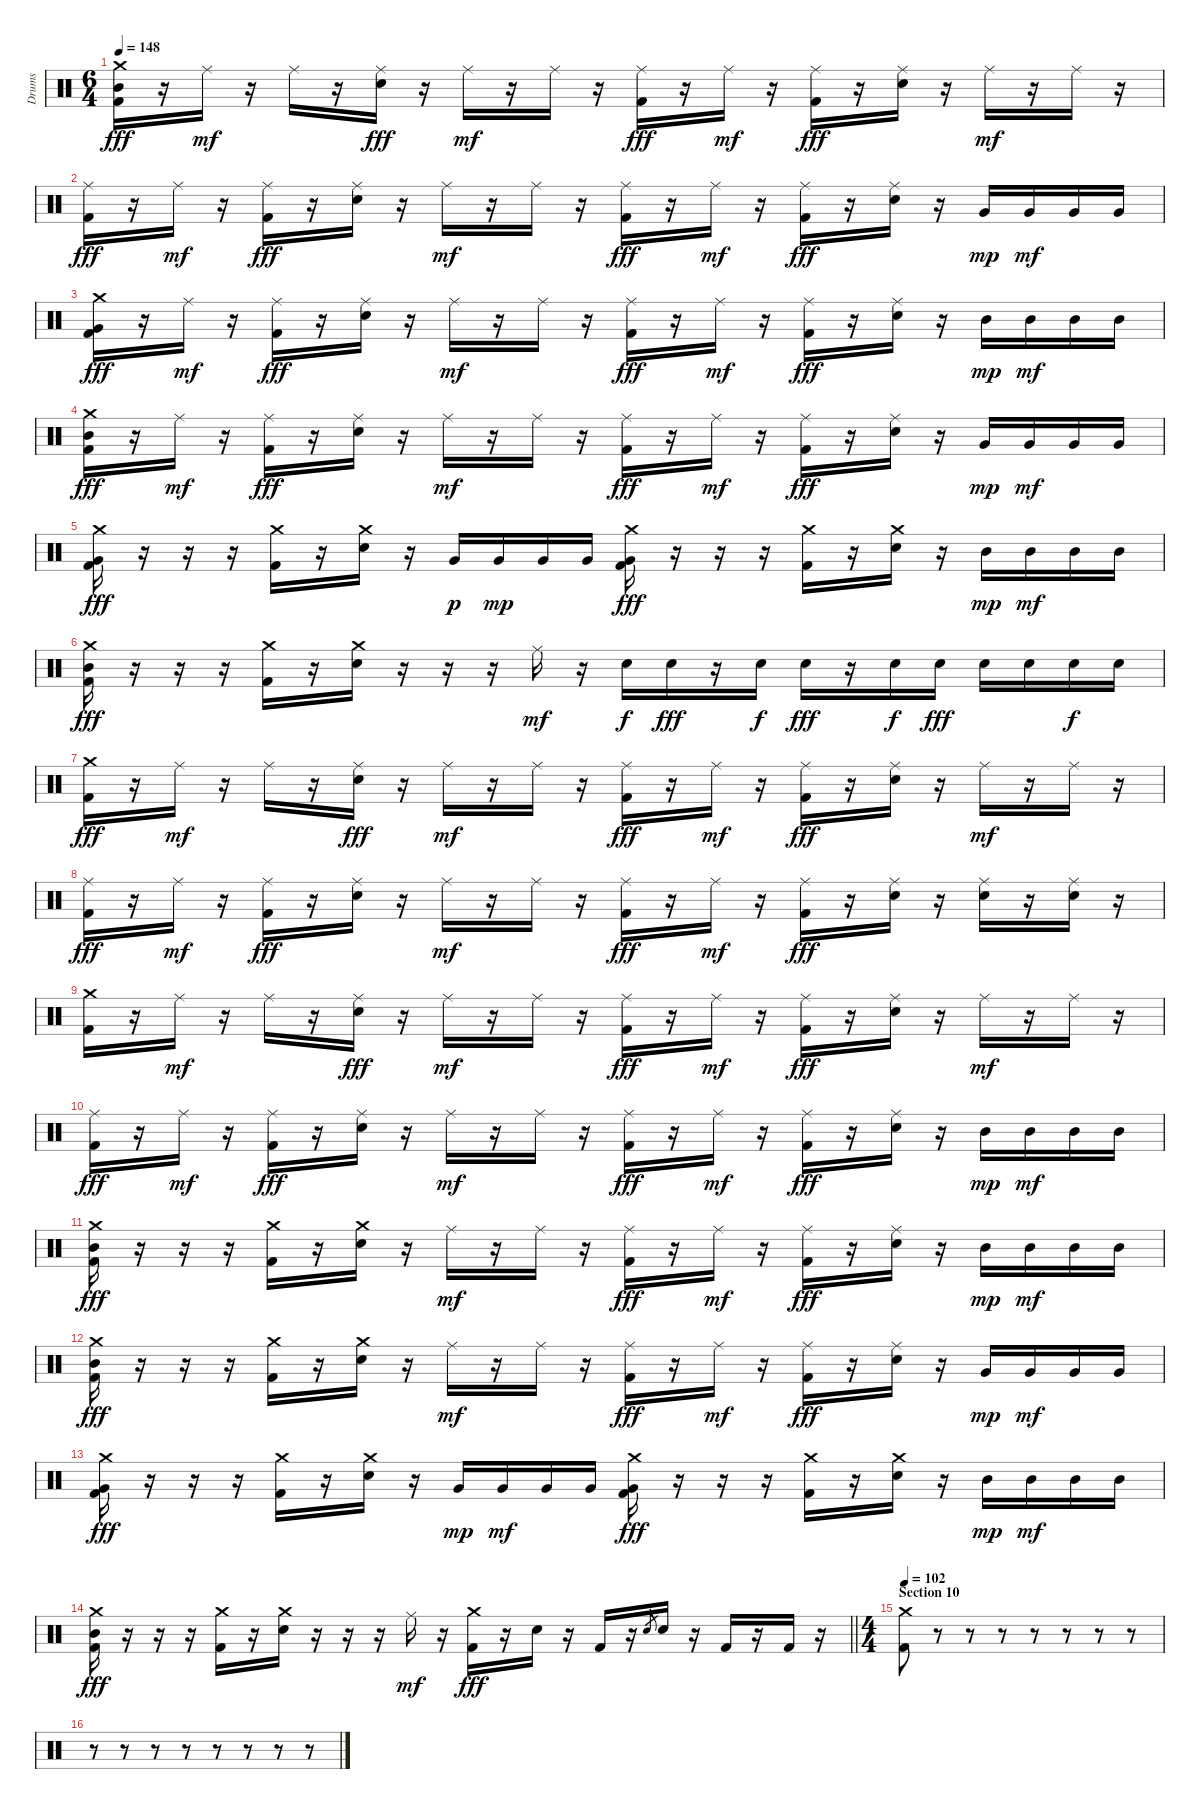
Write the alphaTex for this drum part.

\track ("Drums" "Drums") {instrument percussion}
\staff {score}
\articulation defaults
\ts (6 4)
\tempo 148
\clef neutral
\ks c
("Crash medium (hit)" "Mid Tom (hit)" "Kick (hit) 2").16{dy fff} r.16 "Ride (middle)".16{dy mf} r.16 "Ride (middle)".16 r.16 ("Ride (middle)" "Electric Snare (hit)").16{dy fff} r.16 "Ride (middle)".16{dy mf} r.16 "Ride (middle)".16 r.16 ("Ride (middle)" "Kick (hit) 2").16{dy fff} r.16 "Ride (middle)".16{dy mf} r.16 ("Ride (middle)" "Kick (hit) 2").16{dy fff} r.16 ("Ride (middle)" "Electric Snare (hit)").16 r.16 "Ride (middle)".16{dy mf} r.16 "Ride (middle)".16 r.16 |
("Ride (middle)" "Kick (hit) 2").16{dy fff} r.16 "Ride (middle)".16{dy mf} r.16 ("Ride (middle)" "Kick (hit) 2").16{dy fff} r.16 ("Ride (middle)" "Electric Snare (hit)").16 r.16 "Ride (middle)".16{dy mf} r.16 "Ride (middle)".16 r.16 ("Ride (middle)" "Kick (hit) 2").16{dy fff} r.16 "Ride (middle)".16{dy mf} r.16 ("Ride (middle)" "Kick (hit) 2").16{dy fff} r.16 ("Ride (middle)" "Electric Snare (hit)").16 r.16 "Very Low Tom (hit)".16{dy mp} "Very Low Tom (hit)".16{dy mf} "Very Low Tom (hit)".16 "Very Low Tom (hit)".16 |
("Crash medium (hit)" "Very Low Tom (hit)" "Kick (hit) 2").16{dy fff} r.16 "Ride (middle)".16{dy mf} r.16 ("Ride (middle)" "Kick (hit) 2").16{dy fff} r.16 ("Ride (middle)" "Electric Snare (hit)").16 r.16 "Ride (middle)".16{dy mf} r.16 "Ride (middle)".16 r.16 ("Ride (middle)" "Kick (hit) 2").16{dy fff} r.16 "Ride (middle)".16{dy mf} r.16 ("Ride (middle)" "Kick (hit) 2").16{dy fff} r.16 ("Ride (middle)" "Electric Snare (hit)").16 r.16 "Mid Tom (hit)".16{dy mp} "Mid Tom (hit)".16{dy mf} "Mid Tom (hit)".16 "Mid Tom (hit)".16 |
("Crash medium (hit)" "Mid Tom (hit)" "Kick (hit) 2").16{dy fff} r.16 "Ride (middle)".16{dy mf} r.16 ("Ride (middle)" "Kick (hit) 2").16{dy fff} r.16 ("Ride (middle)" "Electric Snare (hit)").16 r.16 "Ride (middle)".16{dy mf} r.16 "Ride (middle)".16 r.16 ("Ride (middle)" "Kick (hit) 2").16{dy fff} r.16 "Ride (middle)".16{dy mf} r.16 ("Ride (middle)" "Kick (hit) 2").16{dy fff} r.16 ("Ride (middle)" "Electric Snare (hit)").16 r.16 "Very Low Tom (hit)".16{dy mp} "Very Low Tom (hit)".16{dy mf} "Very Low Tom (hit)".16 "Very Low Tom (hit)".16 |
("Crash medium (hit)" "Very Low Tom (hit)" "Kick (hit) 2").16{dy fff} r.16 r.16 r.16 ("Crash medium (hit)" "Kick (hit) 2").16 r.16 ("Crash medium (hit)" "Electric Snare (hit)").16 r.16 "Very Low Tom (hit)".16{dy p} "Very Low Tom (hit)".16{dy mp} "Very Low Tom (hit)".16 "Very Low Tom (hit)".16 ("Crash medium (hit)" "Very Low Tom (hit)" "Kick (hit) 2").16{dy fff} r.16 r.16 r.16 ("Crash medium (hit)" "Kick (hit) 2").16 r.16 ("Crash medium (hit)" "Electric Snare (hit)").16 r.16 "Mid Tom (hit)".16{dy mp} "Mid Tom (hit)".16{dy mf} "Mid Tom (hit)".16 "Mid Tom (hit)".16 |
("Crash medium (hit)" "Mid Tom (hit)" "Kick (hit) 2").16{dy fff} r.16 r.16 r.16 ("Crash medium (hit)" "Kick (hit) 2").16 r.16 ("Crash medium (hit)" "Electric Snare (hit)").16 r.16 r.16 r.16 "Ride (middle)".16{dy mf} r.16 "Electric Snare (hit)".16{dy f} "Electric Snare (hit)".16{dy fff} r.16 "Electric Snare (hit)".16{dy f} "Electric Snare (hit)".16{dy fff} r.16 "Electric Snare (hit)".16{dy f} "Electric Snare (hit)".16{dy fff} "Electric Snare (hit)".16 "Electric Snare (hit)".16 "Electric Snare (hit)".16{dy f} "Electric Snare (hit)".16 |
("Crash medium (hit)" "Kick (hit) 2").16{dy fff} r.16 "Ride (middle)".16{dy mf} r.16 "Ride (middle)".16 r.16 ("Ride (middle)" "Electric Snare (hit)").16{dy fff} r.16 "Ride (middle)".16{dy mf} r.16 "Ride (middle)".16 r.16 ("Ride (middle)" "Kick (hit) 2").16{dy fff} r.16 "Ride (middle)".16{dy mf} r.16 ("Ride (middle)" "Kick (hit) 2").16{dy fff} r.16 ("Ride (middle)" "Electric Snare (hit)").16 r.16 "Ride (middle)".16{dy mf} r.16 "Ride (middle)".16 r.16 |
("Ride (middle)" "Kick (hit) 2").16{dy fff} r.16 "Ride (middle)".16{dy mf} r.16 ("Ride (middle)" "Kick (hit) 2").16{dy fff} r.16 ("Ride (middle)" "Electric Snare (hit)").16 r.16 "Ride (middle)".16{dy mf} r.16 "Ride (middle)".16 r.16 ("Ride (middle)" "Kick (hit) 2").16{dy fff} r.16 "Ride (middle)".16{dy mf} r.16 ("Ride (middle)" "Kick (hit) 2").16{dy fff} r.16 ("Ride (middle)" "Electric Snare (hit)").16 r.16 ("Ride (middle)" "Electric Snare (hit)").16 r.16 ("Ride (middle)" "Electric Snare (hit)").16 r.16 |
("Crash medium (hit)" "Kick (hit) 2").16 r.16 "Ride (middle)".16{dy mf} r.16 "Ride (middle)".16 r.16 ("Ride (middle)" "Electric Snare (hit)").16{dy fff} r.16 "Ride (middle)".16{dy mf} r.16 "Ride (middle)".16 r.16 ("Ride (middle)" "Kick (hit) 2").16{dy fff} r.16 "Ride (middle)".16{dy mf} r.16 ("Ride (middle)" "Kick (hit) 2").16{dy fff} r.16 ("Ride (middle)" "Electric Snare (hit)").16 r.16 "Ride (middle)".16{dy mf} r.16 "Ride (middle)".16 r.16 |
("Ride (middle)" "Kick (hit) 2").16{dy fff} r.16 "Ride (middle)".16{dy mf} r.16 ("Ride (middle)" "Kick (hit) 2").16{dy fff} r.16 ("Ride (middle)" "Electric Snare (hit)").16 r.16 "Ride (middle)".16{dy mf} r.16 "Ride (middle)".16 r.16 ("Ride (middle)" "Kick (hit) 2").16{dy fff} r.16 "Ride (middle)".16{dy mf} r.16 ("Ride (middle)" "Kick (hit) 2").16{dy fff} r.16 ("Ride (middle)" "Electric Snare (hit)").16 r.16 "Mid Tom (hit)".16{dy mp} "Mid Tom (hit)".16{dy mf} "Mid Tom (hit)".16 "Mid Tom (hit)".16 |
("Crash medium (hit)" "Mid Tom (hit)" "Kick (hit) 2").16{dy fff} r.16 r.16 r.16 ("Crash medium (hit)" "Kick (hit) 2").16 r.16 ("Crash medium (hit)" "Electric Snare (hit)").16 r.16 "Ride (middle)".16{dy mf} r.16 "Ride (middle)".16 r.16 ("Ride (middle)" "Kick (hit) 2").16{dy fff} r.16 "Ride (middle)".16{dy mf} r.16 ("Ride (middle)" "Kick (hit) 2").16{dy fff} r.16 ("Ride (middle)" "Electric Snare (hit)").16 r.16 "Mid Tom (hit)".16{dy mp} "Mid Tom (hit)".16{dy mf} "Mid Tom (hit)".16 "Mid Tom (hit)".16 |
("Crash medium (hit)" "Mid Tom (hit)" "Kick (hit) 2").16{dy fff} r.16 r.16 r.16 ("Crash medium (hit)" "Kick (hit) 2").16 r.16 ("Crash medium (hit)" "Electric Snare (hit)").16 r.16 "Ride (middle)".16{dy mf} r.16 "Ride (middle)".16 r.16 ("Ride (middle)" "Kick (hit) 2").16{dy fff} r.16 "Ride (middle)".16{dy mf} r.16 ("Ride (middle)" "Kick (hit) 2").16{dy fff} r.16 ("Ride (middle)" "Electric Snare (hit)").16 r.16 "Very Low Tom (hit)".16{dy mp} "Very Low Tom (hit)".16{dy mf} "Very Low Tom (hit)".16 "Very Low Tom (hit)".16 |
("Crash medium (hit)" "Very Low Tom (hit)" "Kick (hit) 2").16{dy fff} r.16 r.16 r.16 ("Crash medium (hit)" "Kick (hit) 2").16 r.16 ("Crash medium (hit)" "Electric Snare (hit)").16 r.16 "Very Low Tom (hit)".16{dy mp} "Very Low Tom (hit)".16{dy mf} "Very Low Tom (hit)".16 "Very Low Tom (hit)".16 ("Crash medium (hit)" "Very Low Tom (hit)" "Kick (hit) 2").16{dy fff} r.16 r.16 r.16 ("Crash medium (hit)" "Kick (hit) 2").16 r.16 ("Crash medium (hit)" "Electric Snare (hit)").16 r.16 "Mid Tom (hit)".16{dy mp} "Mid Tom (hit)".16{dy mf} "Mid Tom (hit)".16 "Mid Tom (hit)".16 |
\barLineRight lightlight
("Crash medium (hit)" "Mid Tom (hit)" "Kick (hit) 2").16{dy fff} r.16 r.16 r.16 ("Crash medium (hit)" "Kick (hit) 2").16 r.16 ("Crash medium (hit)" "Electric Snare (hit)").16 r.16 r.16 r.16 "Ride (middle)".16{dy mf} r.16 ("Crash medium (hit)" "Kick (hit) 2").16{dy fff} r.16 "Electric Snare (hit)".16 r.16 "Kick (hit) 2".16 r.16 "Electric Snare (hit)".8{gr} "Electric Snare (hit)".16 r.16 "Kick (hit) 2".16 r.16 "Kick (hit) 2".16 r.16 |
\ts (4 4)
\section ("" "Section 10")
\tempo 102
("Crash medium (hit)" "Kick (hit) 2").8 r.8 r.8 r.8 r.8 r.8 r.8 r.8 |
r.8 r.8 r.8 r.8 r.8 r.8 r.8 r.8
